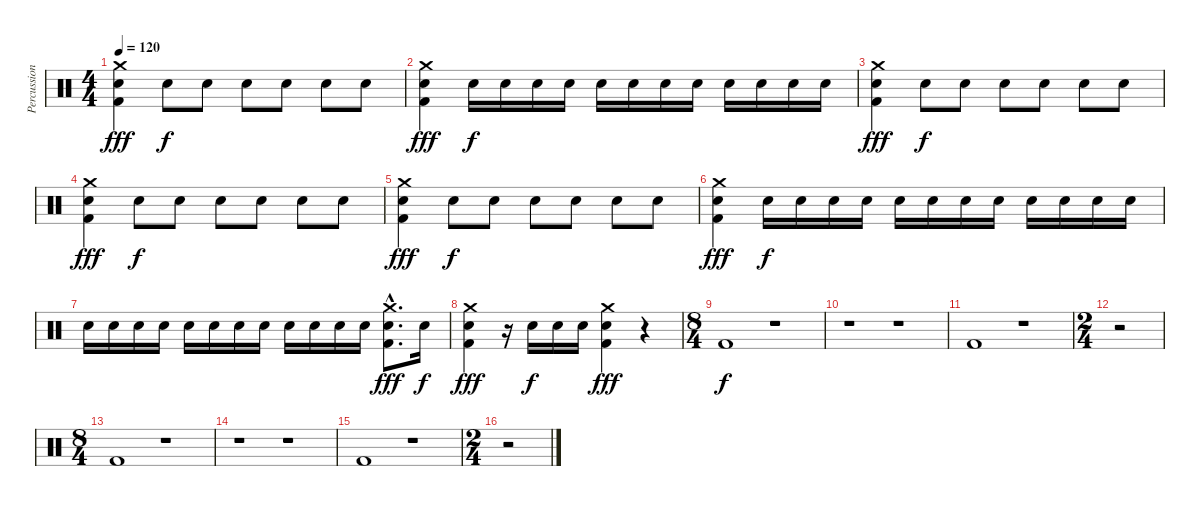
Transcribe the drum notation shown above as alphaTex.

\track ("Percussion" "Percussion") {instrument percussion}
\staff {score}
\articulation defaults
\ts (4 4)
\tempo 120
\clef neutral
\ks c
("Kick (hit) 2" "Snare (hit) 2" "Crash medium (hit)").4{dy fff} "Snare (hit) 2".8{dy f} "Snare (hit) 2".8 "Snare (hit) 2".8 "Snare (hit) 2".8 "Snare (hit) 2".8 "Snare (hit) 2".8 |
("Kick (hit) 2" "Snare (hit) 2" "Crash medium (hit)").4{dy fff} "Snare (hit) 2".16{dy f} "Snare (hit) 2".16 "Snare (hit) 2".16 "Snare (hit) 2".16 "Snare (hit) 2".16 "Snare (hit) 2".16 "Snare (hit) 2".16 "Snare (hit) 2".16 "Snare (hit) 2".16 "Snare (hit) 2".16 "Snare (hit) 2".16 "Snare (hit) 2".16 |
("Kick (hit) 2" "Snare (hit) 2" "Crash medium (hit)").4{dy fff} "Snare (hit) 2".8{dy f} "Snare (hit) 2".8 "Snare (hit) 2".8 "Snare (hit) 2".8 "Snare (hit) 2".8 "Snare (hit) 2".8 |
("Kick (hit) 2" "Snare (hit) 2" "Crash medium (hit)").4{dy fff} "Snare (hit) 2".8{dy f} "Snare (hit) 2".8 "Snare (hit) 2".8 "Snare (hit) 2".8 "Snare (hit) 2".8 "Snare (hit) 2".8 |
("Kick (hit) 2" "Snare (hit) 2" "Crash medium (hit)").4{dy fff} "Snare (hit) 2".8{dy f} "Snare (hit) 2".8 "Snare (hit) 2".8 "Snare (hit) 2".8 "Snare (hit) 2".8 "Snare (hit) 2".8 |
("Kick (hit) 2" "Snare (hit) 2" "Crash medium (hit)").4{dy fff} "Snare (hit) 2".16{dy f} "Snare (hit) 2".16 "Snare (hit) 2".16 "Snare (hit) 2".16 "Snare (hit) 2".16 "Snare (hit) 2".16 "Snare (hit) 2".16 "Snare (hit) 2".16 "Snare (hit) 2".16 "Snare (hit) 2".16 "Snare (hit) 2".16 "Snare (hit) 2".16 |
"Snare (hit) 2".16 "Snare (hit) 2".16 "Snare (hit) 2".16 "Snare (hit) 2".16 "Snare (hit) 2".16 "Snare (hit) 2".16 "Snare (hit) 2".16 "Snare (hit) 2".16 "Snare (hit) 2".16 "Snare (hit) 2".16 "Snare (hit) 2".16 "Snare (hit) 2".16 ("Kick (hit) 2" "Snare (hit) 2"{hac} "Crash medium (hit)").8{d dy fff} "Snare (hit) 2".16{dy f} |
("Kick (hit) 2" "Snare (hit) 2" "Crash medium (hit)").4{dy fff} r.16 "Snare (hit) 2".16{dy f} "Snare (hit) 2".16 "Snare (hit) 2".16 ("Kick (hit) 2" "Snare (hit) 2" "Crash medium (hit)").4{dy fff} r.4 |
\ts (8 4)
"Kick (hit) 2".1{dy f} r.1 |
r.1 r.1 |
"Kick (hit) 2".1 r.1 |
\ts (2 4)
r.2 |
\ts (8 4)
"Kick (hit) 2".1 r.1 |
r.1 r.1 |
"Kick (hit) 2".1 r.1 |
\ts (2 4)
r.2
